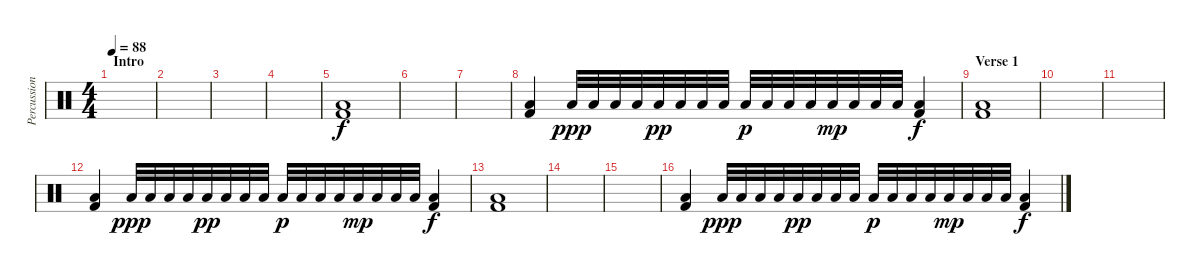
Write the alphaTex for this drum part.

\track ("Percussion" "Percussion") {instrument percussion}
\staff {score}
\articulation defaults
\ts (4 4)
\section ("" "Intro")
\tempo 88
\clef neutral
\ks c
|
|
|
|
("Low Floor Tom (hit)" "Kick (hit) 2").1 |
|
|
("Low Floor Tom (hit)" "Kick (hit) 2").4 "Low Floor Tom (hit)".32{dy ppp} "Low Floor Tom (hit)".32 "Low Floor Tom (hit)".32 "Low Floor Tom (hit)".32 "Low Floor Tom (hit)".32{dy pp} "Low Floor Tom (hit)".32 "Low Floor Tom (hit)".32 "Low Floor Tom (hit)".32 "Low Floor Tom (hit)".32{dy p} "Low Floor Tom (hit)".32 "Low Floor Tom (hit)".32 "Low Floor Tom (hit)".32 "Low Floor Tom (hit)".32{dy mp} "Low Floor Tom (hit)".32 "Low Floor Tom (hit)".32 "Low Floor Tom (hit)".32 ("Low Floor Tom (hit)" "Kick (hit) 2").4{dy f} |
\section ("" "Verse 1")
("Low Floor Tom (hit)" "Kick (hit) 2").1 |
|
|
("Low Floor Tom (hit)" "Kick (hit) 2").4 "Low Floor Tom (hit)".32{dy ppp} "Low Floor Tom (hit)".32 "Low Floor Tom (hit)".32 "Low Floor Tom (hit)".32 "Low Floor Tom (hit)".32{dy pp} "Low Floor Tom (hit)".32 "Low Floor Tom (hit)".32 "Low Floor Tom (hit)".32 "Low Floor Tom (hit)".32{dy p} "Low Floor Tom (hit)".32 "Low Floor Tom (hit)".32 "Low Floor Tom (hit)".32 "Low Floor Tom (hit)".32{dy mp} "Low Floor Tom (hit)".32 "Low Floor Tom (hit)".32 "Low Floor Tom (hit)".32 ("Low Floor Tom (hit)" "Kick (hit) 2").4{dy f} |
("Low Floor Tom (hit)" "Kick (hit) 2").1 |
|
|
("Low Floor Tom (hit)" "Kick (hit) 2").4 "Low Floor Tom (hit)".32{dy ppp} "Low Floor Tom (hit)".32 "Low Floor Tom (hit)".32 "Low Floor Tom (hit)".32 "Low Floor Tom (hit)".32{dy pp} "Low Floor Tom (hit)".32 "Low Floor Tom (hit)".32 "Low Floor Tom (hit)".32 "Low Floor Tom (hit)".32{dy p} "Low Floor Tom (hit)".32 "Low Floor Tom (hit)".32 "Low Floor Tom (hit)".32 "Low Floor Tom (hit)".32{dy mp} "Low Floor Tom (hit)".32 "Low Floor Tom (hit)".32 "Low Floor Tom (hit)".32 ("Low Floor Tom (hit)" "Kick (hit) 2").4{dy f}
